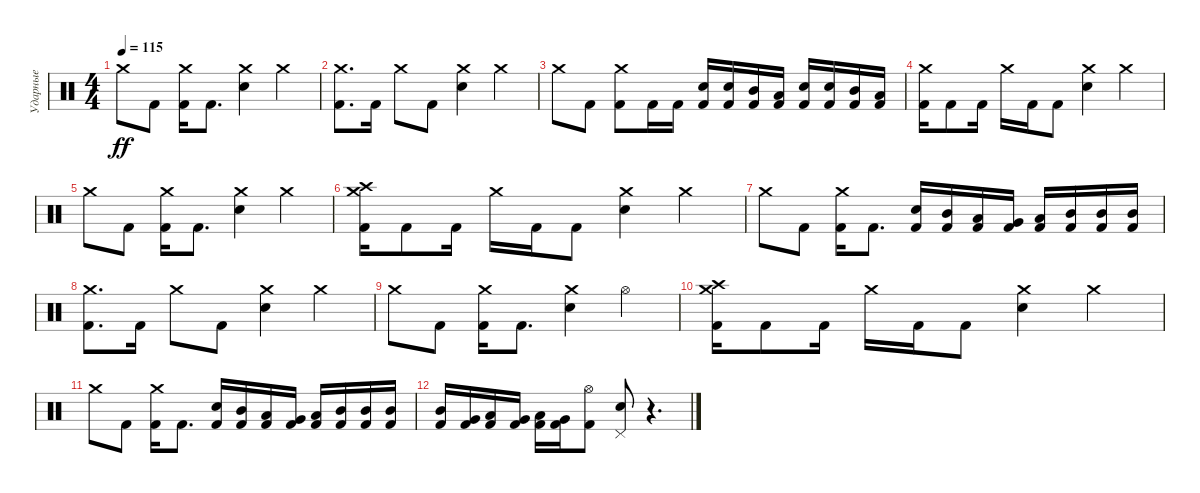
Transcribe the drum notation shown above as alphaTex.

\track ("Ударные" "Ударные") {instrument percussion}
\staff {score}
\articulation defaults
\ts (4 4)
\tempo 115
\clef neutral
\ks c "Crash medium (hit)".8{dy ff} "Kick (hit) 2".8
("Crash medium (hit)" "Kick (hit) 2").16 "Kick (hit) 2".8{d} ("Crash medium (hit)" "Electric Snare (hit)").4 "Crash medium (hit)".4 |
("Crash medium (hit)" "Kick (hit) 2").8{d} "Kick (hit) 2".16 "Crash medium (hit)".8 "Kick (hit) 2".8 ("Crash medium (hit)" "Electric Snare (hit)").4 "Crash medium (hit)".4 |
"Crash medium (hit)".8 "Kick (hit) 2".8 ("Crash medium (hit)" "Kick (hit) 2").8 "Kick (hit) 2".16 "Kick (hit) 2".16 ("Electric Snare (hit)" "Kick (hit) 2").16 ("Electric Snare (hit)" "Kick (hit) 2").16 ("Mid Tom (hit)" "Kick (hit) 2").16 ("Low Tom (hit)" "Kick (hit) 2").16 ("Electric Snare (hit)" "Kick (hit) 2").16 ("Electric Snare (hit)" "Kick (hit) 2").16 ("Mid Tom (hit)" "Kick (hit) 2").16 ("Low Tom (hit)" "Kick (hit) 2").16 |
("Crash medium (hit)" "Kick (hit) 2").16 "Kick (hit) 2".8 "Kick (hit) 2".16 "Crash medium (hit)".16 "Kick (hit) 2".16 "Kick (hit) 2".8 ("Crash medium (hit)" "Electric Snare (hit)").4 "Crash medium (hit)".4 |
"Crash medium (hit)".8 "Kick (hit) 2".8 ("Crash medium (hit)" "Kick (hit) 2").16 "Kick (hit) 2".8{d} ("Crash medium (hit)" "Electric Snare (hit)").4 "Crash medium (hit)".4 |
("Crash medium (hit)" "Crash high (hit)" "Kick (hit) 2").16 "Kick (hit) 2".8 "Kick (hit) 2".16 "Crash medium (hit)".16 "Kick (hit) 2".16 "Kick (hit) 2".8 ("Crash medium (hit)" "Electric Snare (hit)").4 "Crash medium (hit)".4 |
"Crash medium (hit)".8 "Kick (hit) 2".8 ("Crash medium (hit)" "Kick (hit) 2").16 "Kick (hit) 2".8{d} ("Electric Snare (hit)" "Kick (hit) 2").16 ("Mid Tom (hit)" "Kick (hit) 2").16 ("Low Tom (hit)" "Kick (hit) 2").16 ("Very Low Tom (hit)" "Kick (hit) 2").16 ("Low Floor Tom (hit)" "Kick (hit) 2").16 ("Mid Tom (hit)" "Kick (hit) 2").16 ("Mid Tom (hit)" "Kick (hit) 2").16 ("Mid Tom (hit)" "Kick (hit) 2").16 |
("Crash medium (hit)" "Kick (hit) 2").8{d} "Kick (hit) 2".16 "Crash medium (hit)".8 "Kick (hit) 2".8 ("Crash medium (hit)" "Electric Snare (hit)").4 "Crash medium (hit)".4 |
"Crash medium (hit)".8 "Kick (hit) 2".8 ("Crash medium (hit)" "Kick (hit) 2").16 "Kick (hit) 2".8{d} ("Crash medium (hit)" "Electric Snare (hit)").4 "Hi-Hat (open)".4 |
("Crash medium (hit)" "Crash high (hit)" "Kick (hit) 2").16 "Kick (hit) 2".8 "Kick (hit) 2".16 "Crash medium (hit)".16 "Kick (hit) 2".16 "Kick (hit) 2".8 ("Crash medium (hit)" "Electric Snare (hit)").4 "Crash medium (hit)".4 |
"Crash medium (hit)".8 "Kick (hit) 2".8 ("Crash medium (hit)" "Kick (hit) 2").16 "Kick (hit) 2".8{d} ("Electric Snare (hit)" "Kick (hit) 2").16 ("Mid Tom (hit)" "Kick (hit) 2").16 ("Low Tom (hit)" "Kick (hit) 2").16 ("Very Low Tom (hit)" "Kick (hit) 2").16 ("Low Floor Tom (hit)" "Kick (hit) 2").16 ("Mid Tom (hit)" "Kick (hit) 2").16 ("Mid Tom (hit)" "Kick (hit) 2").16 ("Mid Tom (hit)" "Kick (hit) 2").16 |
("Mid Tom (hit)" "Kick (hit) 2").16 ("Very Low Tom (hit)" "Kick (hit) 2").16 ("Low Floor Tom (hit)" "Kick (hit) 2").16 ("Very Low Tom (hit)" "Kick (hit) 2").16 ("Low Floor Tom (hit)" "Kick (hit) 2").16 ("Very Low Tom (hit)" "Kick (hit) 2").16 ("Hi-Hat (open)" "Kick (hit) 2").8 ("Pedal Hi-Hat (hit)" "Electric Snare (hit)").8 r.4{d}
